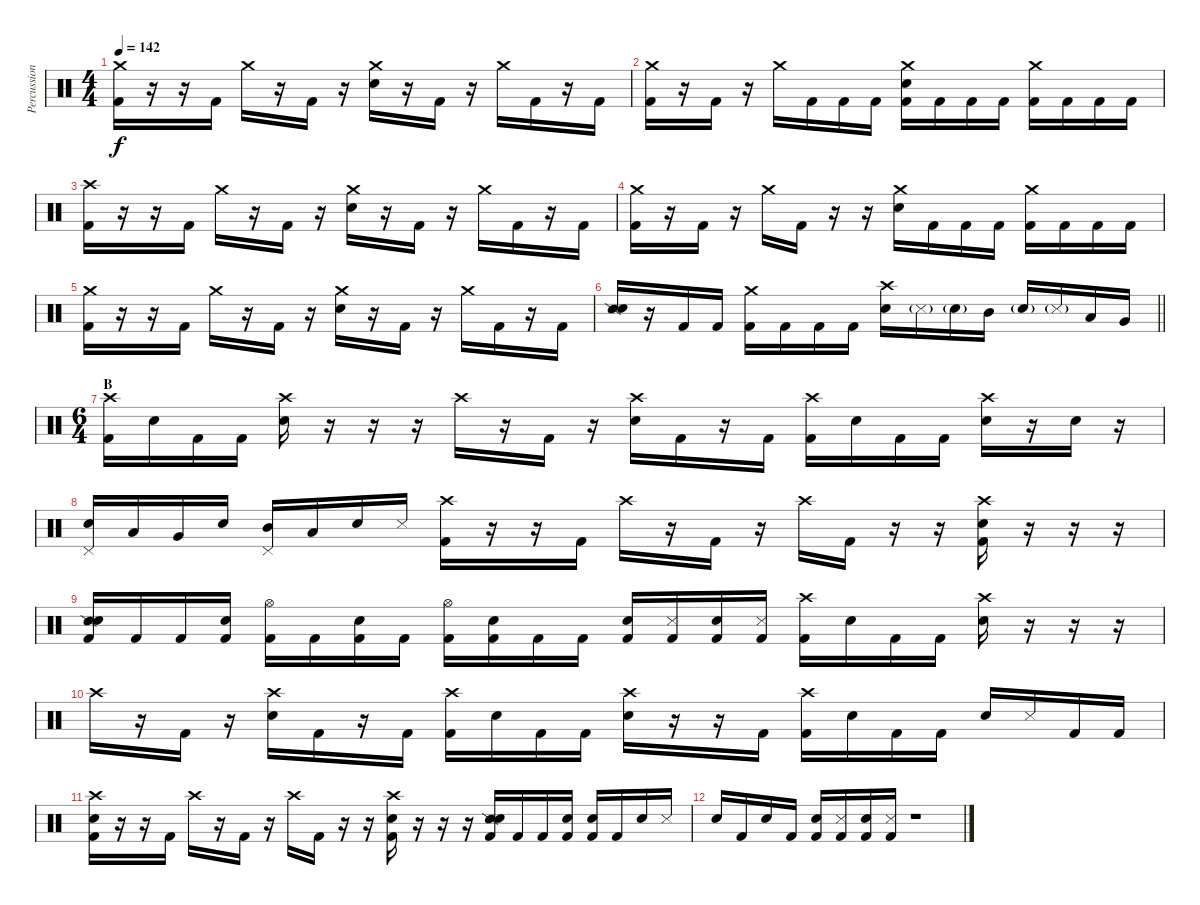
\track ("Percussion" "Percussion") {instrument percussion}
\staff {score}
\articulation defaults
\ts (4 4)
\tempo 142
\clef neutral
\ks c
("Crash medium (hit)" "Kick (hit) 2").16{dy f} r.16 r.16 "Kick (hit) 2".16 "Crash medium (hit)".16 r.16 "Kick (hit) 2".16 r.16 ("Crash medium (hit)" "Snare (hit) 2").16 r.16 "Kick (hit) 2".16 r.16 "Crash medium (hit)".16 "Kick (hit) 2".16 r.16 "Kick (hit) 2".16 |
("Crash medium (hit)" "Kick (hit) 2").16 r.16 "Kick (hit) 2".16 r.16 "Crash medium (hit)".16 "Kick (hit) 2".16 "Kick (hit) 2".16 "Kick (hit) 2".16 ("Crash medium (hit)" "Snare (hit) 2" "Kick (hit) 2").16 "Kick (hit) 2".16 "Kick (hit) 2".16 "Kick (hit) 2".16 ("Crash medium (hit)" "Kick (hit) 2").16 "Kick (hit) 2".16 "Kick (hit) 2".16 "Kick (hit) 2".16 |
("Crash high (hit)" "Kick (hit) 2").16 r.16 r.16 "Kick (hit) 2".16 "Crash medium (hit)".16 r.16 "Kick (hit) 2".16 r.16 ("Crash medium (hit)" "Snare (hit) 2").16 r.16 "Kick (hit) 2".16 r.16 "Crash medium (hit)".16 "Kick (hit) 2".16 r.16 "Kick (hit) 2".16 |
("Crash medium (hit)" "Kick (hit) 2").16 r.16 "Kick (hit) 2".16 r.16 "Crash medium (hit)".16 "Kick (hit) 2".16 r.16 r.16 ("Crash medium (hit)" "Snare (hit) 2").16 "Kick (hit) 2".16 "Kick (hit) 2".16 "Kick (hit) 2".16 ("Crash medium (hit)" "Kick (hit) 2").16 "Kick (hit) 2".16 "Kick (hit) 2".16 "Kick (hit) 2".16 |
("Crash medium (hit)" "Kick (hit) 2").16 r.16 r.16 "Kick (hit) 2".16 "Crash medium (hit)".16 r.16 "Kick (hit) 2".16 r.16 ("Crash medium (hit)" "Snare (hit) 2").16 r.16 "Kick (hit) 2".16 r.16 "Crash medium (hit)".16 "Kick (hit) 2".16 r.16 "Kick (hit) 2".16 |
\barLineRight lightlight
("Snare (side stick) 2" "Snare (hit) 2").16 r.16 "Kick (hit) 2".16 "Kick (hit) 2".16 ("Crash medium (hit)" "Kick (hit) 2").16 "Kick (hit) 2".16 "Kick (hit) 2".16 "Kick (hit) 2".16 ("Crash high (hit)" "Snare (hit) 2").16 "Metronome (hit)"{g}.16 "Snare (hit) 2"{g}.16 "Mid Tom (hit)".16 "Snare (hit) 2"{g}.16 "Metronome (hit)"{g}.16 "Low Tom (hit)".16 "Very Low Tom (hit)".16 |
\ts (6 4)
\section ("" "B")
("Crash high (hit)" "Kick (hit) 2").16 "Snare (hit) 2".16 "Kick (hit) 2".16 "Kick (hit) 2".16 ("Crash high (hit)" "Snare (hit) 2").16 r.16 r.16 r.16 "Crash high (hit)".16 r.16 "Kick (hit) 2".16 r.16 ("Crash high (hit)" "Snare (hit) 2").16 "Kick (hit) 2".16 r.16 "Kick (hit) 2".16 ("Crash high (hit)" "Kick (hit) 2").16 "Snare (hit) 2".16 "Kick (hit) 2".16 "Kick (hit) 2".16 ("Crash high (hit)" "Snare (hit) 2").16 r.16 "Snare (hit)".16 r.16 |
("Pedal Hi-Hat (hit)" "Snare (hit) 2").16 "Low Tom (hit)".16 "Very Low Tom (hit)".16 "Snare (hit) 2".16 ("Pedal Hi-Hat (hit)" "Mid Tom (hit)").16 "Low Tom (hit)".16 "Snare (hit) 2".16 "Metronome (hit)".16 ("Crash high (hit)" "Kick (hit) 2").16 r.16 r.16 "Kick (hit) 2".16 "Crash high (hit)".16 r.16 "Kick (hit) 2".16 r.16 "Crash high (hit)".16 "Kick (hit) 2".16 r.16 r.16 ("Crash high (hit)" "Snare (hit) 2" "Kick (hit) 2").16 r.16 r.16 r.16 |
("Snare (side stick) 2" "Snare (hit) 2" "Kick (hit) 2").16 "Kick (hit) 2".16 "Kick (hit) 2".16 ("Snare (hit) 2" "Kick (hit) 2").16 ("Hi-Hat (open)" "Kick (hit) 2").16 "Kick (hit) 2".16 ("Snare (hit) 2" "Kick (hit) 2").16 "Kick (hit) 2".16 ("Hi-Hat (open)" "Kick (hit) 2").16 ("Snare (hit) 2" "Kick (hit) 2").16 "Kick (hit) 2".16 "Kick (hit) 2".16 ("Snare (hit) 2" "Kick (hit) 2").16 ("Metronome (hit)" "Kick (hit) 2").16 ("Snare (hit) 2" "Kick (hit) 2").16 ("Metronome (hit)" "Kick (hit) 2").16 ("Crash high (hit)" "Kick (hit) 2").16 "Snare (hit) 2".16 "Kick (hit) 2".16 "Kick (hit) 2".16 ("Crash high (hit)" "Snare (hit) 2").16 r.16 r.16 r.16 |
"Crash high (hit)".16 r.16 "Kick (hit) 2".16 r.16 ("Crash high (hit)" "Snare (hit) 2").16 "Kick (hit) 2".16 r.16 "Kick (hit) 2".16 ("Crash high (hit)" "Kick (hit) 2").16 "Snare (hit) 2".16 "Kick (hit) 2".16 "Kick (hit) 2".16 ("Crash high (hit)" "Snare (hit) 2").16 r.16 r.16 "Kick (hit) 2".16 ("Crash high (hit)" "Kick (hit) 2").16 "Snare (hit) 2".16 "Kick (hit) 2".16 "Kick (hit) 2".16 "Snare (hit) 2".16 "Metronome (hit)".16 "Kick (hit) 2".16 "Kick (hit) 2".16 |
("Crash high (hit)" "Snare (hit) 2" "Kick (hit) 2").16 r.16 r.16 "Kick (hit) 2".16 "Crash high (hit)".16 r.16 "Kick (hit) 2".16 r.16 "Crash high (hit)".16 "Kick (hit) 2".16 r.16 r.16 ("Crash high (hit)" "Snare (hit) 2" "Kick (hit) 2").16 r.16 r.16 r.16 ("Snare (side stick) 2" "Snare (hit) 2" "Kick (hit) 2").16 "Kick (hit) 2".16 "Kick (hit) 2".16 ("Snare (hit) 2" "Kick (hit) 2").16 ("Snare (hit)" "Kick (hit) 2").16 "Kick (hit) 2".16 "Snare (hit) 2".16 "Metronome (hit)".16 |
"Snare (hit) 2".16 "Kick (hit) 2".16 "Snare (hit) 2".16 "Kick (hit) 2".16 ("Snare (hit) 2" "Kick (hit) 2").16 ("Metronome (hit)" "Kick (hit) 2").16 ("Snare (hit) 2" "Kick (hit) 2").16 ("Metronome (hit)" "Kick (hit) 2").16 r.1
